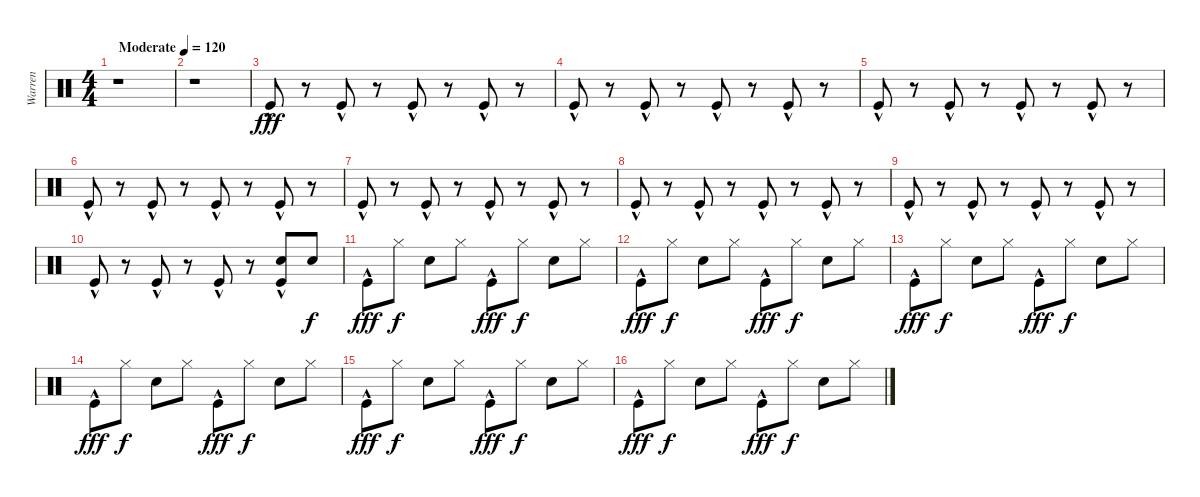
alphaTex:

\track ("Warren" "Warren") {instrument percussion}
\staff {score}
\articulation defaults
\ts (4 4)
\tempo (120 "Moderate")
\clef neutral
\ks c
r.1{dy fff} |
r.1 |
"Kick (hit)"{hac}.8 r.8 "Kick (hit)"{hac}.8 r.8 "Kick (hit)"{hac}.8 r.8 "Kick (hit)"{hac}.8 r.8 |
"Kick (hit)"{hac}.8 r.8 "Kick (hit)"{hac}.8 r.8 "Kick (hit)"{hac}.8 r.8 "Kick (hit)"{hac}.8 r.8 |
"Kick (hit)"{hac}.8 r.8 "Kick (hit)"{hac}.8 r.8 "Kick (hit)"{hac}.8 r.8 "Kick (hit)"{hac}.8 r.8 |
"Kick (hit)"{hac}.8 r.8 "Kick (hit)"{hac}.8 r.8 "Kick (hit)"{hac}.8 r.8 "Kick (hit)"{hac}.8 r.8 |
"Kick (hit)"{hac}.8 r.8 "Kick (hit)"{hac}.8 r.8 "Kick (hit)"{hac}.8 r.8 "Kick (hit)"{hac}.8 r.8 |
"Kick (hit)"{hac}.8 r.8 "Kick (hit)"{hac}.8 r.8 "Kick (hit)"{hac}.8 r.8 "Kick (hit)"{hac}.8 r.8 |
"Kick (hit)"{hac}.8 r.8 "Kick (hit)"{hac}.8 r.8 "Kick (hit)"{hac}.8 r.8 "Kick (hit)"{hac}.8 r.8 |
"Kick (hit)"{hac}.8 r.8 "Kick (hit)"{hac}.8 r.8 "Kick (hit)"{hac}.8 r.8 ("Electric Snare (hit)" "Kick (hit)"{hac}).8 "Electric Snare (hit)".8{dy f} |
"Kick (hit)"{hac}.8{dy fff} "Hi-Hat (closed)".8{dy f} "Electric Snare (hit)".8 "Hi-Hat (closed)".8 "Kick (hit)"{hac}.8{dy fff} "Hi-Hat (closed)".8{dy f} "Electric Snare (hit)".8 "Hi-Hat (closed)".8 |
"Kick (hit)"{hac}.8{dy fff} "Hi-Hat (closed)".8{dy f} "Electric Snare (hit)".8 "Hi-Hat (closed)".8 "Kick (hit)"{hac}.8{dy fff} "Hi-Hat (closed)".8{dy f} "Electric Snare (hit)".8 "Hi-Hat (closed)".8 |
"Kick (hit)"{hac}.8{dy fff} "Hi-Hat (closed)".8{dy f} "Electric Snare (hit)".8 "Hi-Hat (closed)".8 "Kick (hit)"{hac}.8{dy fff} "Hi-Hat (closed)".8{dy f} "Electric Snare (hit)".8 "Hi-Hat (closed)".8 |
"Kick (hit)"{hac}.8{dy fff} "Hi-Hat (closed)".8{dy f} "Electric Snare (hit)".8 "Hi-Hat (closed)".8 "Kick (hit)"{hac}.8{dy fff} "Hi-Hat (closed)".8{dy f} "Electric Snare (hit)".8 "Hi-Hat (closed)".8 |
"Kick (hit)"{hac}.8{dy fff} "Hi-Hat (closed)".8{dy f} "Electric Snare (hit)".8 "Hi-Hat (closed)".8 "Kick (hit)"{hac}.8{dy fff} "Hi-Hat (closed)".8{dy f} "Electric Snare (hit)".8 "Hi-Hat (closed)".8 |
"Kick (hit)"{hac}.8{dy fff} "Hi-Hat (closed)".8{dy f} "Electric Snare (hit)".8 "Hi-Hat (closed)".8 "Kick (hit)"{hac}.8{dy fff} "Hi-Hat (closed)".8{dy f} "Electric Snare (hit)".8 "Hi-Hat (closed)".8
